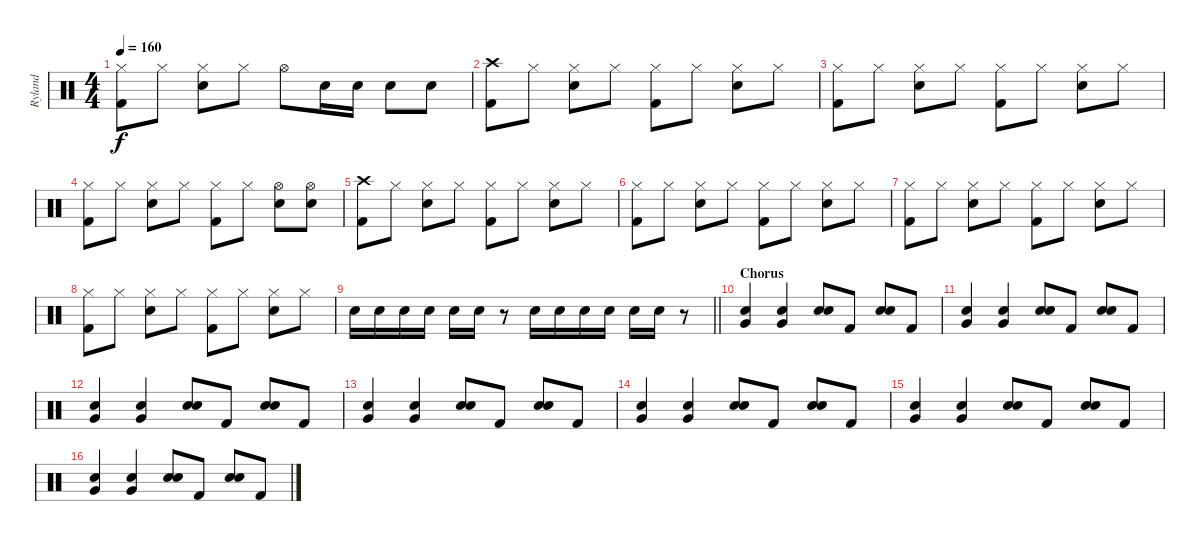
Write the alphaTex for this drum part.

\track ("Ryland" "Ryland") {instrument percussion}
\staff {score}
\articulation defaults
\ts (4 4)
\tempo 160
\clef neutral
\ks c
("Hi-Hat (closed)" "Kick (hit) 2").8{dy f} "Hi-Hat (closed)".8 ("Hi-Hat (closed)" "Electric Snare (hit)").8 "Hi-Hat (closed)".8 "Hi-Hat (open)".8 "Electric Snare (hit)".16 "Electric Snare (hit)".16 "Electric Snare (hit)".8 "Electric Snare (hit)".8 |
("Crash high (hit)" "Kick (hit) 2").8 "Hi-Hat (closed)".8 ("Hi-Hat (closed)" "Electric Snare (hit)").8 "Hi-Hat (closed)".8 ("Hi-Hat (closed)" "Kick (hit) 2").8 "Hi-Hat (closed)".8 ("Hi-Hat (closed)" "Electric Snare (hit)").8 "Hi-Hat (closed)".8 |
("Hi-Hat (closed)" "Kick (hit) 2").8 "Hi-Hat (closed)".8 ("Hi-Hat (closed)" "Electric Snare (hit)").8 "Hi-Hat (closed)".8 ("Hi-Hat (closed)" "Kick (hit) 2").8 "Hi-Hat (closed)".8 ("Hi-Hat (closed)" "Electric Snare (hit)").8 "Hi-Hat (closed)".8 |
("Hi-Hat (closed)" "Kick (hit) 2").8 "Hi-Hat (closed)".8 ("Hi-Hat (closed)" "Electric Snare (hit)").8 "Hi-Hat (closed)".8 ("Hi-Hat (closed)" "Kick (hit) 2").8 "Hi-Hat (closed)".8 ("Hi-Hat (open)" "Electric Snare (hit)").8 ("Hi-Hat (open)" "Electric Snare (hit)").8 |
("Crash high (hit)" "Kick (hit) 2").8 "Hi-Hat (closed)".8 ("Hi-Hat (closed)" "Electric Snare (hit)").8 "Hi-Hat (closed)".8 ("Hi-Hat (closed)" "Kick (hit) 2").8 "Hi-Hat (closed)".8 ("Hi-Hat (closed)" "Electric Snare (hit)").8 "Hi-Hat (closed)".8 |
("Hi-Hat (closed)" "Kick (hit) 2").8 "Hi-Hat (closed)".8 ("Hi-Hat (closed)" "Electric Snare (hit)").8 "Hi-Hat (closed)".8 ("Hi-Hat (closed)" "Kick (hit) 2").8 "Hi-Hat (closed)".8 ("Hi-Hat (closed)" "Electric Snare (hit)").8 "Hi-Hat (closed)".8 |
("Hi-Hat (closed)" "Kick (hit) 2").8 "Hi-Hat (closed)".8 ("Hi-Hat (closed)" "Electric Snare (hit)").8 "Hi-Hat (closed)".8 ("Hi-Hat (closed)" "Kick (hit) 2").8 "Hi-Hat (closed)".8 ("Hi-Hat (closed)" "Electric Snare (hit)").8 "Hi-Hat (closed)".8 |
("Hi-Hat (closed)" "Kick (hit) 2").8 "Hi-Hat (closed)".8 ("Hi-Hat (closed)" "Electric Snare (hit)").8 "Hi-Hat (closed)".8 ("Hi-Hat (closed)" "Kick (hit) 2").8 "Hi-Hat (closed)".8 ("Hi-Hat (closed)" "Electric Snare (hit)").8 "Hi-Hat (closed)".8 |
\barLineRight lightlight "Electric Snare (hit)".16 "Electric Snare (hit)".16 "Electric Snare (hit)".16 "Electric Snare (hit)".16 "Electric Snare (hit)".16 "Electric Snare (hit)".16
r.8 "Electric Snare (hit)".16 "Electric Snare (hit)".16 "Electric Snare (hit)".16 "Electric Snare (hit)".16 "Electric Snare (hit)".16 "Electric Snare (hit)".16 r.8 |
\section ("" "Chorus")
("Very Low Tom (hit)" "Electric Snare (hit)").4 ("Very Low Tom (hit)" "Electric Snare (hit)").4 ("Electric Snare (hit)" "Electric Snare (hit)").8 "Kick (hit) 2".8 ("Electric Snare (hit)" "Electric Snare (hit)").8 "Kick (hit) 2".8 |
("Very Low Tom (hit)" "Electric Snare (hit)").4 ("Very Low Tom (hit)" "Electric Snare (hit)").4 ("Electric Snare (hit)" "Electric Snare (hit)").8 "Kick (hit) 2".8 ("Electric Snare (hit)" "Electric Snare (hit)").8 "Kick (hit) 2".8 |
("Very Low Tom (hit)" "Electric Snare (hit)").4 ("Very Low Tom (hit)" "Electric Snare (hit)").4 ("Electric Snare (hit)" "Electric Snare (hit)").8 "Kick (hit) 2".8 ("Electric Snare (hit)" "Electric Snare (hit)").8 "Kick (hit) 2".8 |
("Very Low Tom (hit)" "Electric Snare (hit)").4 ("Very Low Tom (hit)" "Electric Snare (hit)").4 ("Electric Snare (hit)" "Electric Snare (hit)").8 "Kick (hit) 2".8 ("Electric Snare (hit)" "Electric Snare (hit)").8 "Kick (hit) 2".8 |
("Very Low Tom (hit)" "Electric Snare (hit)").4 ("Very Low Tom (hit)" "Electric Snare (hit)").4 ("Electric Snare (hit)" "Electric Snare (hit)").8 "Kick (hit) 2".8 ("Electric Snare (hit)" "Electric Snare (hit)").8 "Kick (hit) 2".8 |
("Very Low Tom (hit)" "Electric Snare (hit)").4 ("Very Low Tom (hit)" "Electric Snare (hit)").4 ("Electric Snare (hit)" "Electric Snare (hit)").8 "Kick (hit) 2".8 ("Electric Snare (hit)" "Electric Snare (hit)").8 "Kick (hit) 2".8 |
("Very Low Tom (hit)" "Electric Snare (hit)").4 ("Very Low Tom (hit)" "Electric Snare (hit)").4 ("Electric Snare (hit)" "Electric Snare (hit)").8 "Kick (hit) 2".8 ("Electric Snare (hit)" "Electric Snare (hit)").8 "Kick (hit) 2".8
